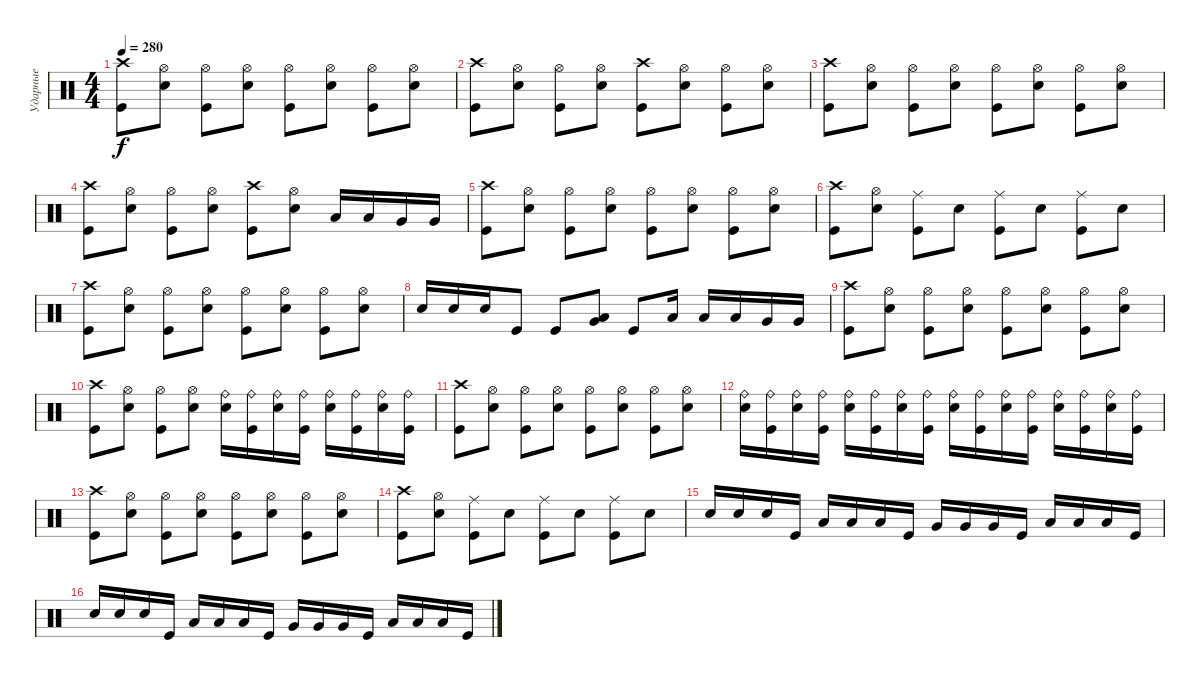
\track ("Ударные" "Ударные") {instrument percussion}
\staff {score}
\articulation defaults
\ts (4 4)
\tempo 280
\clef neutral
\ks c
("Crash high (hit)" "Kick (hit)").8{dy f} ("Hi-Hat (open)" "Snare (hit) 2").8 ("Hi-Hat (open)" "Kick (hit)").8 ("Hi-Hat (open)" "Snare (hit) 2").8 ("Hi-Hat (open)" "Kick (hit)").8 ("Hi-Hat (open)" "Snare (hit) 2").8 ("Hi-Hat (open)" "Kick (hit)").8 ("Hi-Hat (open)" "Snare (hit) 2").8 |
("Crash high (hit)" "Kick (hit)").8 ("Hi-Hat (open)" "Snare (hit) 2").8 ("Hi-Hat (open)" "Kick (hit)").8 ("Hi-Hat (open)" "Snare (hit) 2").8 ("Crash high (hit)" "Kick (hit)").8 ("Hi-Hat (open)" "Snare (hit) 2").8 ("Hi-Hat (open)" "Kick (hit)").8 ("Hi-Hat (open)" "Snare (hit) 2").8 |
("Crash high (hit)" "Kick (hit)").8 ("Hi-Hat (open)" "Snare (hit) 2").8 ("Hi-Hat (open)" "Kick (hit)").8 ("Hi-Hat (open)" "Snare (hit) 2").8 ("Hi-Hat (open)" "Kick (hit)").8 ("Hi-Hat (open)" "Snare (hit) 2").8 ("Hi-Hat (open)" "Kick (hit)").8 ("Hi-Hat (open)" "Snare (hit) 2").8 |
("Crash high (hit)" "Kick (hit)").8 ("Hi-Hat (open)" "Snare (hit) 2").8 ("Hi-Hat (open)" "Kick (hit)").8 ("Hi-Hat (open)" "Snare (hit) 2").8 ("Crash high (hit)" "Kick (hit)").8 ("Hi-Hat (open)" "Snare (hit) 2").8 "Low Tom (hit)".16 "Low Tom (hit)".16 "Very Low Tom (hit)".16 "Very Low Tom (hit)".16 |
("Crash high (hit)" "Kick (hit)").8 ("Hi-Hat (open)" "Snare (hit) 2").8 ("Hi-Hat (open)" "Kick (hit)").8 ("Hi-Hat (open)" "Snare (hit) 2").8 ("Hi-Hat (open)" "Kick (hit)").8 ("Hi-Hat (open)" "Snare (hit) 2").8 ("Hi-Hat (open)" "Kick (hit)").8 ("Hi-Hat (open)" "Snare (hit) 2").8 |
("Crash high (hit)" "Kick (hit)").8 ("Hi-Hat (open)" "Snare (hit) 2").8 ("Ride (middle)" "Kick (hit)").8 "Snare (hit) 2".8 ("Ride (middle)" "Kick (hit)").8 "Snare (hit) 2".8 ("Ride (middle)" "Kick (hit)").8 "Snare (hit) 2".8 |
("Crash high (hit)" "Kick (hit)").8 ("Hi-Hat (open)" "Snare (hit) 2").8 ("Hi-Hat (open)" "Kick (hit)").8 ("Hi-Hat (open)" "Snare (hit) 2").8 ("Hi-Hat (open)" "Kick (hit)").8 ("Hi-Hat (open)" "Snare (hit) 2").8 ("Hi-Hat (open)" "Kick (hit)").8 ("Hi-Hat (open)" "Snare (hit) 2").8 |
"Snare (hit) 2".16 "Snare (hit) 2".16 "Snare (hit) 2".16 "Kick (hit)".8 "Kick (hit)".8 ("Low Floor Tom (hit)" "Very Low Tom (hit)").8 "Kick (hit)".8 "Low Tom (hit)".16 "Low Tom (hit)".16 "Low Tom (hit)".16 "Very Low Tom (hit)".16 "Very Low Tom (hit)".16 |
("Crash high (hit)" "Kick (hit)").8 ("Hi-Hat (open)" "Snare (hit) 2").8 ("Hi-Hat (open)" "Kick (hit)").8 ("Hi-Hat (open)" "Snare (hit) 2").8 ("Hi-Hat (open)" "Kick (hit)").8 ("Hi-Hat (open)" "Snare (hit) 2").8 ("Hi-Hat (open)" "Kick (hit)").8 ("Hi-Hat (open)" "Snare (hit) 2").8 |
("Crash high (hit)" "Kick (hit)").8 ("Hi-Hat (open)" "Snare (hit) 2").8 ("Hi-Hat (open)" "Kick (hit)").8 ("Hi-Hat (open)" "Snare (hit) 2").8 ("Ride (bell)" "Snare (hit) 2").16 ("Ride (bell)" "Kick (hit)").16 ("Ride (bell)" "Snare (hit) 2").16 ("Ride (bell)" "Kick (hit)").16 ("Ride (bell)" "Snare (hit) 2").16 ("Ride (bell)" "Kick (hit)").16 ("Ride (bell)" "Snare (hit) 2").16 ("Ride (bell)" "Kick (hit)").16 |
("Crash high (hit)" "Kick (hit)").8 ("Hi-Hat (open)" "Snare (hit) 2").8 ("Hi-Hat (open)" "Kick (hit)").8 ("Hi-Hat (open)" "Snare (hit) 2").8 ("Hi-Hat (open)" "Kick (hit)").8 ("Hi-Hat (open)" "Snare (hit) 2").8 ("Hi-Hat (open)" "Kick (hit)").8 ("Hi-Hat (open)" "Snare (hit) 2").8 |
("Ride (bell)" "Snare (hit) 2").16 ("Ride (bell)" "Kick (hit)").16 ("Ride (bell)" "Snare (hit) 2").16 ("Ride (bell)" "Kick (hit)").16 ("Ride (bell)" "Snare (hit) 2").16 ("Ride (bell)" "Kick (hit)").16 ("Ride (bell)" "Snare (hit) 2").16 ("Ride (bell)" "Kick (hit)").16 ("Ride (bell)" "Snare (hit) 2").16 ("Ride (bell)" "Kick (hit)").16 ("Ride (bell)" "Snare (hit) 2").16 ("Ride (bell)" "Kick (hit)").16 ("Ride (bell)" "Snare (hit) 2").16 ("Ride (bell)" "Kick (hit)").16 ("Ride (bell)" "Snare (hit) 2").16 ("Ride (bell)" "Kick (hit)").16 |
("Crash high (hit)" "Kick (hit)").8 ("Hi-Hat (open)" "Snare (hit) 2").8 ("Hi-Hat (open)" "Kick (hit)").8 ("Hi-Hat (open)" "Snare (hit) 2").8 ("Hi-Hat (open)" "Kick (hit)").8 ("Hi-Hat (open)" "Snare (hit) 2").8 ("Hi-Hat (open)" "Kick (hit)").8 ("Hi-Hat (open)" "Snare (hit) 2").8 |
("Crash high (hit)" "Kick (hit)").8 ("Hi-Hat (open)" "Snare (hit) 2").8 ("Ride (middle)" "Kick (hit)").8 "Snare (hit) 2".8 ("Ride (middle)" "Kick (hit)").8 "Snare (hit) 2".8 ("Ride (middle)" "Kick (hit)").8 "Snare (hit) 2".8 |
"Snare (hit) 2".16 "Snare (hit) 2".16 "Snare (hit) 2".16 "Kick (hit)".16 "Low Tom (hit)".16 "Low Tom (hit)".16 "Low Tom (hit)".16 "Kick (hit)".16 "Very Low Tom (hit)".16 "Very Low Tom (hit)".16 "Very Low Tom (hit)".16 "Kick (hit)".16 "Low Floor Tom (hit)".16 "Low Floor Tom (hit)".16 "Low Floor Tom (hit)".16 "Kick (hit)".16 |
"Snare (hit) 2".16 "Snare (hit) 2".16 "Snare (hit) 2".16 "Kick (hit)".16 "Low Tom (hit)".16 "Low Tom (hit)".16 "Low Tom (hit)".16 "Kick (hit)".16 "Very Low Tom (hit)".16 "Very Low Tom (hit)".16 "Very Low Tom (hit)".16 "Kick (hit)".16 "Low Floor Tom (hit)".16 "Low Floor Tom (hit)".16 "Low Floor Tom (hit)".16 "Kick (hit)".16
